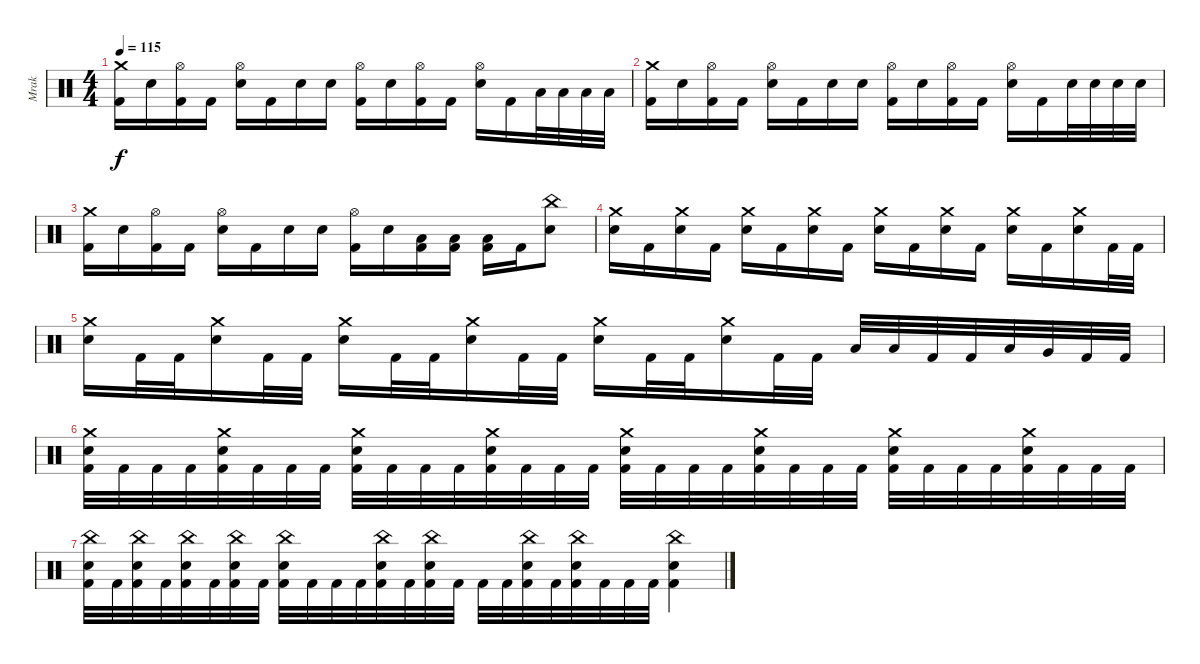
\track ("Mrak" "Mrak") {instrument percussion}
\staff {score}
\articulation defaults
\ts (4 4)
\tempo 115
\clef neutral
\ks c
("Crash medium (hit)" "Kick (hit) 2").16{dy f} "Electric Snare (hit)".16 ("Hi-Hat (open)" "Kick (hit) 2").16 "Kick (hit) 2".16 ("Hi-Hat (open)" "Electric Snare (hit)").16 "Kick (hit) 2".16 "Electric Snare (hit)".16 "Electric Snare (hit)".16 ("Hi-Hat (open)" "Kick (hit) 2").16 "Electric Snare (hit)".16 ("Hi-Hat (open)" "Kick (hit) 2").16 "Kick (hit) 2".16 ("Hi-Hat (open)" "Electric Snare (hit)").16 "Kick (hit) 2".16 "Low Tom (hit)".32 "Low Tom (hit)".32 "Low Tom (hit)".32 "Low Tom (hit)".32 |
("Crash medium (hit)" "Kick (hit) 2").16 "Electric Snare (hit)".16 ("Hi-Hat (open)" "Kick (hit) 2").16 "Kick (hit) 2".16 ("Hi-Hat (open)" "Electric Snare (hit)").16 "Kick (hit) 2".16 "Electric Snare (hit)".16 "Electric Snare (hit)".16 ("Hi-Hat (open)" "Kick (hit) 2").16 "Electric Snare (hit)".16 ("Hi-Hat (open)" "Kick (hit) 2").16 "Kick (hit) 2".16 ("Hi-Hat (open)" "Electric Snare (hit)").16 "Kick (hit) 2".16 "Electric Snare (hit)".32 "Electric Snare (hit)".32 "Electric Snare (hit)".32 "Electric Snare (hit)".32 |
("Crash medium (hit)" "Kick (hit) 2").16 "Electric Snare (hit)".16 ("Hi-Hat (open)" "Kick (hit) 2").16 "Kick (hit) 2".16 ("Hi-Hat (open)" "Electric Snare (hit)").16 "Kick (hit) 2".16 "Electric Snare (hit)".16 "Electric Snare (hit)".16 ("Hi-Hat (open)" "Kick (hit) 2").16 "Electric Snare (hit)".16 ("Low Tom (hit)" "Kick (hit) 2").16 ("Low Tom (hit)" "Kick (hit) 2").16 ("Low Floor Tom (hit)" "Kick (hit) 2").16 "Kick (hit) 2".16 ("China (hit)" "Electric Snare (hit)").8 |
("Crash medium (hit)" "Electric Snare (hit)").16 "Kick (hit) 2".16 ("Crash medium (hit)" "Electric Snare (hit)").16 "Kick (hit) 2".16 ("Crash medium (hit)" "Electric Snare (hit)").16 "Kick (hit) 2".16 ("Crash medium (hit)" "Electric Snare (hit)").16 "Kick (hit) 2".16 ("Crash medium (hit)" "Electric Snare (hit)").16 "Kick (hit) 2".16 ("Crash medium (hit)" "Electric Snare (hit)").16 "Kick (hit) 2".16 ("Crash medium (hit)" "Electric Snare (hit)").16 "Kick (hit) 2".16 ("Crash medium (hit)" "Electric Snare (hit)").16 "Kick (hit) 2".32 "Kick (hit) 2".32 |
("Crash medium (hit)" "Electric Snare (hit)").16 "Kick (hit) 2".32 "Kick (hit) 2".32 ("Crash medium (hit)" "Electric Snare (hit)").16 "Kick (hit) 2".32 "Kick (hit) 2".32 ("Crash medium (hit)" "Electric Snare (hit)").16 "Kick (hit) 2".32 "Kick (hit) 2".32 ("Crash medium (hit)" "Electric Snare (hit)").16 "Kick (hit) 2".32 "Kick (hit) 2".32 ("Crash medium (hit)" "Electric Snare (hit)").16 "Kick (hit) 2".32 "Kick (hit) 2".32 ("Crash medium (hit)" "Electric Snare (hit)").16 "Kick (hit) 2".32 "Kick (hit) 2".32 "Low Tom (hit)".32 "Low Floor Tom (hit)".32 "Kick (hit) 2".32 "Kick (hit) 2".32 "Low Floor Tom (hit)".32 "Very Low Tom (hit)".32 "Kick (hit) 2".32 "Kick (hit) 2".32 |
("Kick (hit) 2" "Electric Snare (hit)" "Crash medium (hit)").32 "Kick (hit) 2".32 "Kick (hit) 2".32 "Kick (hit) 2".32 ("Kick (hit) 2" "Electric Snare (hit)" "Crash medium (hit)").32 "Kick (hit) 2".32 "Kick (hit) 2".32 "Kick (hit) 2".32 ("Kick (hit) 2" "Electric Snare (hit)" "Crash medium (hit)").32 "Kick (hit) 2".32 "Kick (hit) 2".32 "Kick (hit) 2".32 ("Kick (hit) 2" "Electric Snare (hit)" "Crash medium (hit)").32 "Kick (hit) 2".32 "Kick (hit) 2".32 "Kick (hit) 2".32 ("Kick (hit) 2" "Electric Snare (hit)" "Crash medium (hit)").32 "Kick (hit) 2".32 "Kick (hit) 2".32 "Kick (hit) 2".32 ("Kick (hit) 2" "Electric Snare (hit)" "Crash medium (hit)").32 "Kick (hit) 2".32 "Kick (hit) 2".32 "Kick (hit) 2".32 ("Kick (hit) 2" "Electric Snare (hit)" "Crash medium (hit)").32 "Kick (hit) 2".32 "Kick (hit) 2".32 "Kick (hit) 2".32 ("Kick (hit) 2" "Electric Snare (hit)" "Crash medium (hit)").32 "Kick (hit) 2".32 "Kick (hit) 2".32 "Kick (hit) 2".32 |
("Kick (hit) 2" "Electric Snare (hit)" "China (hit)").32 "Kick (hit) 2".32 ("Kick (hit) 2" "Electric Snare (hit)" "China (hit)").32 "Kick (hit) 2".32 ("Kick (hit) 2" "Electric Snare (hit)" "China (hit)").32 "Kick (hit) 2".32 ("Kick (hit) 2" "Electric Snare (hit)" "China (hit)").32 "Kick (hit) 2".32 ("Kick (hit) 2" "Electric Snare (hit)" "China (hit)").32 "Kick (hit) 2".32 "Kick (hit) 2".32 "Kick (hit) 2".32 ("Kick (hit) 2" "Electric Snare (hit)" "China (hit)").32 "Kick (hit) 2".32 ("Kick (hit) 2" "Electric Snare (hit)" "China (hit)").32 "Kick (hit) 2".32 "Kick (hit) 2".32 "Kick (hit) 2".32 ("Kick (hit) 2" "Electric Snare (hit)" "China (hit)").32 "Kick (hit) 2".32 ("Kick (hit) 2" "Electric Snare (hit)" "China (hit)").32 "Kick (hit) 2".32 "Kick (hit) 2".32 "Kick (hit) 2".32 ("Kick (hit) 2" "Electric Snare (hit)" "China (hit)").4
